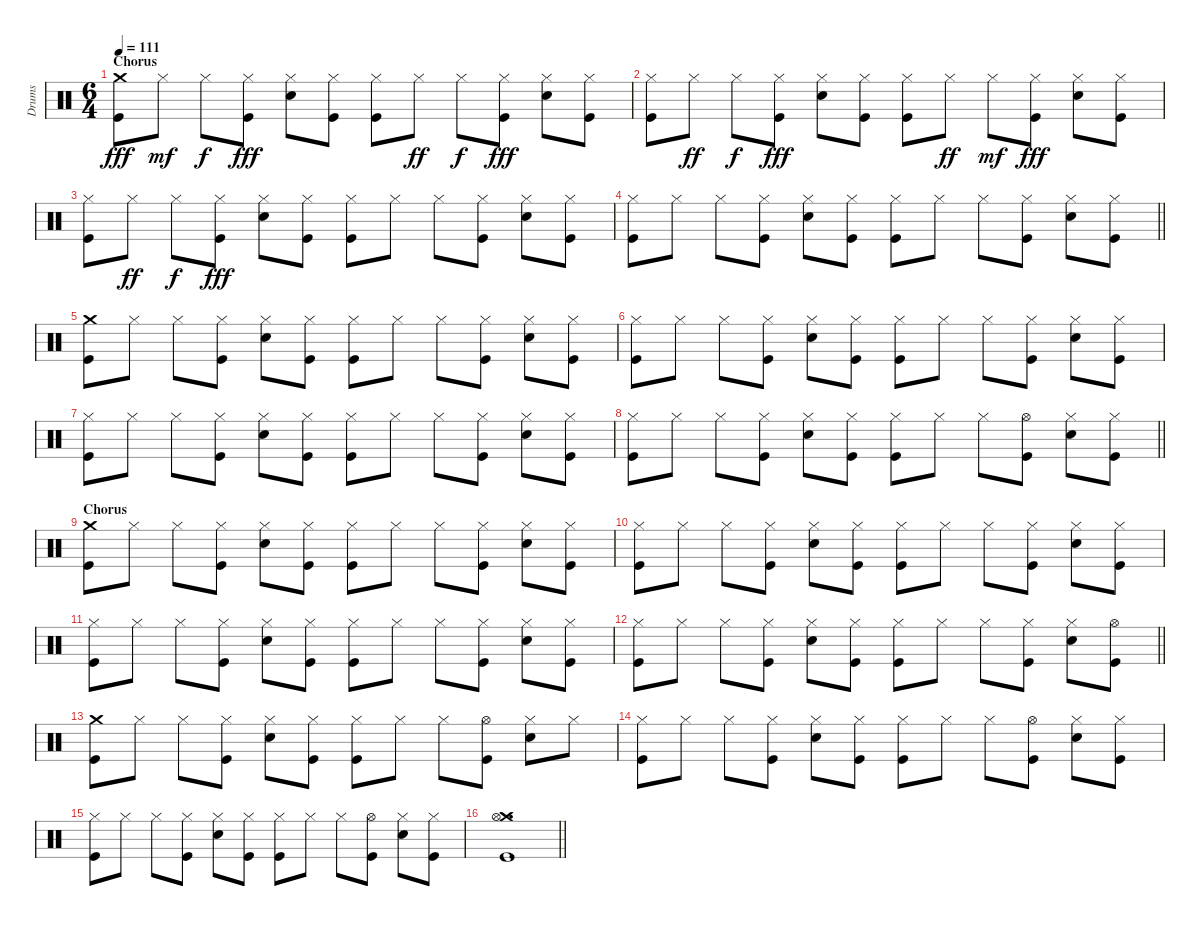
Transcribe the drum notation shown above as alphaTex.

\track ("Drums" "Drums") {instrument percussion}
\staff {score}
\articulation defaults
\ts (6 4)
\section ("" "Chorus")
\tempo 111
\clef neutral
\ks c
("Crash medium (hit)" "Kick (hit)").8{dy fff} "Hi-Hat (closed)".8{dy mf} "Hi-Hat (closed)".8{dy f} ("Hi-Hat (closed)" "Kick (hit)").8{dy fff} ("Hi-Hat (closed)" "Snare (hit) 2").8 ("Hi-Hat (closed)" "Kick (hit)").8 ("Hi-Hat (closed)" "Kick (hit)").8 "Hi-Hat (closed)".8{dy ff} "Hi-Hat (closed)".8{dy f} ("Hi-Hat (closed)" "Kick (hit)").8{dy fff} ("Hi-Hat (closed)" "Snare (hit) 2").8 ("Hi-Hat (closed)" "Kick (hit)").8 |
("Hi-Hat (closed)" "Kick (hit)").8 "Hi-Hat (closed)".8{dy ff} "Hi-Hat (closed)".8{dy f} ("Hi-Hat (closed)" "Kick (hit)").8{dy fff} ("Hi-Hat (closed)" "Snare (hit) 2").8 ("Hi-Hat (closed)" "Kick (hit)").8 ("Hi-Hat (closed)" "Kick (hit)").8 "Hi-Hat (closed)".8{dy ff} "Hi-Hat (closed)".8{dy mf} ("Hi-Hat (closed)" "Kick (hit)").8{dy fff} ("Hi-Hat (closed)" "Snare (hit) 2").8 ("Hi-Hat (closed)" "Kick (hit)").8 |
("Hi-Hat (closed)" "Kick (hit)").8 "Hi-Hat (closed)".8{dy ff} "Hi-Hat (closed)".8{dy f} ("Hi-Hat (closed)" "Kick (hit)").8{dy fff} ("Hi-Hat (closed)" "Snare (hit) 2").8 ("Hi-Hat (closed)" "Kick (hit)").8 ("Hi-Hat (closed)" "Kick (hit)").8 "Hi-Hat (closed)".8 "Hi-Hat (closed)".8 ("Hi-Hat (closed)" "Kick (hit)").8 ("Hi-Hat (closed)" "Snare (hit) 2").8 ("Hi-Hat (closed)" "Kick (hit)").8 |
\barLineRight lightlight
("Hi-Hat (closed)" "Kick (hit)").8 "Hi-Hat (closed)".8 "Hi-Hat (closed)".8 ("Hi-Hat (closed)" "Kick (hit)").8 ("Hi-Hat (closed)" "Snare (hit) 2").8 ("Hi-Hat (closed)" "Kick (hit)").8 ("Hi-Hat (closed)" "Kick (hit)").8 "Hi-Hat (closed)".8 "Hi-Hat (closed)".8 ("Hi-Hat (closed)" "Kick (hit)").8 ("Hi-Hat (closed)" "Snare (hit) 2").8 ("Hi-Hat (closed)" "Kick (hit)").8 |
("Crash medium (hit)" "Kick (hit)").8 "Hi-Hat (closed)".8 "Hi-Hat (closed)".8 ("Hi-Hat (closed)" "Kick (hit)").8 ("Hi-Hat (closed)" "Snare (hit) 2").8 ("Hi-Hat (closed)" "Kick (hit)").8 ("Hi-Hat (closed)" "Kick (hit)").8 "Hi-Hat (closed)".8 "Hi-Hat (closed)".8 ("Hi-Hat (closed)" "Kick (hit)").8 ("Hi-Hat (closed)" "Snare (hit) 2").8 ("Hi-Hat (closed)" "Kick (hit)").8 |
("Hi-Hat (closed)" "Kick (hit)").8 "Hi-Hat (closed)".8 "Hi-Hat (closed)".8 ("Hi-Hat (closed)" "Kick (hit)").8 ("Hi-Hat (closed)" "Snare (hit) 2").8 ("Hi-Hat (closed)" "Kick (hit)").8 ("Hi-Hat (closed)" "Kick (hit)").8 "Hi-Hat (closed)".8 "Hi-Hat (closed)".8 ("Hi-Hat (closed)" "Kick (hit)").8 ("Hi-Hat (closed)" "Snare (hit) 2").8 ("Hi-Hat (closed)" "Kick (hit)").8 |
("Hi-Hat (closed)" "Kick (hit)").8 "Hi-Hat (closed)".8 "Hi-Hat (closed)".8 ("Hi-Hat (closed)" "Kick (hit)").8 ("Hi-Hat (closed)" "Snare (hit) 2").8 ("Hi-Hat (closed)" "Kick (hit)").8 ("Hi-Hat (closed)" "Kick (hit)").8 "Hi-Hat (closed)".8 "Hi-Hat (closed)".8 ("Hi-Hat (closed)" "Kick (hit)").8 ("Hi-Hat (closed)" "Snare (hit) 2").8 ("Hi-Hat (closed)" "Kick (hit)").8 |
\barLineRight lightlight
("Hi-Hat (closed)" "Kick (hit)").8 "Hi-Hat (closed)".8 "Hi-Hat (closed)".8 ("Hi-Hat (closed)" "Kick (hit)").8 ("Hi-Hat (closed)" "Snare (hit) 2").8 ("Hi-Hat (closed)" "Kick (hit)").8 ("Hi-Hat (closed)" "Kick (hit)").8 "Hi-Hat (closed)".8 "Hi-Hat (closed)".8 ("Hi-Hat (open)" "Kick (hit)").8 ("Hi-Hat (closed)" "Snare (hit) 2").8 ("Hi-Hat (closed)" "Kick (hit)").8 |
\section ("" "Chorus")
("Crash medium (hit)" "Kick (hit)").8 "Hi-Hat (closed)".8 "Hi-Hat (closed)".8 ("Hi-Hat (closed)" "Kick (hit)").8 ("Hi-Hat (closed)" "Snare (hit) 2").8 ("Hi-Hat (closed)" "Kick (hit)").8 ("Hi-Hat (closed)" "Kick (hit)").8 "Hi-Hat (closed)".8 "Hi-Hat (closed)".8 ("Hi-Hat (closed)" "Kick (hit)").8 ("Hi-Hat (closed)" "Snare (hit) 2").8 ("Hi-Hat (closed)" "Kick (hit)").8 |
("Hi-Hat (closed)" "Kick (hit)").8 "Hi-Hat (closed)".8 "Hi-Hat (closed)".8 ("Hi-Hat (closed)" "Kick (hit)").8 ("Hi-Hat (closed)" "Snare (hit) 2").8 ("Hi-Hat (closed)" "Kick (hit)").8 ("Hi-Hat (closed)" "Kick (hit)").8 "Hi-Hat (closed)".8 "Hi-Hat (closed)".8 ("Hi-Hat (closed)" "Kick (hit)").8 ("Hi-Hat (closed)" "Snare (hit) 2").8 ("Hi-Hat (closed)" "Kick (hit)").8 |
("Hi-Hat (closed)" "Kick (hit)").8 "Hi-Hat (closed)".8 "Hi-Hat (closed)".8 ("Hi-Hat (closed)" "Kick (hit)").8 ("Hi-Hat (closed)" "Snare (hit) 2").8 ("Hi-Hat (closed)" "Kick (hit)").8 ("Hi-Hat (closed)" "Kick (hit)").8 "Hi-Hat (closed)".8 "Hi-Hat (closed)".8 ("Hi-Hat (closed)" "Kick (hit)").8 ("Hi-Hat (closed)" "Snare (hit) 2").8 ("Hi-Hat (closed)" "Kick (hit)").8 |
\barLineRight lightlight
("Hi-Hat (closed)" "Kick (hit)").8 "Hi-Hat (closed)".8 "Hi-Hat (closed)".8 ("Hi-Hat (closed)" "Kick (hit)").8 ("Hi-Hat (closed)" "Snare (hit) 2").8 ("Hi-Hat (closed)" "Kick (hit)").8 ("Hi-Hat (closed)" "Kick (hit)").8 "Hi-Hat (closed)".8 "Hi-Hat (closed)".8 ("Hi-Hat (closed)" "Kick (hit)").8 ("Hi-Hat (closed)" "Snare (hit) 2").8 ("Hi-Hat (open)" "Kick (hit)").8 |
("Crash medium (hit)" "Kick (hit)").8 "Hi-Hat (closed)".8 "Hi-Hat (closed)".8 ("Hi-Hat (closed)" "Kick (hit)").8 ("Hi-Hat (closed)" "Snare (hit) 2").8 ("Hi-Hat (closed)" "Kick (hit)").8 ("Hi-Hat (closed)" "Kick (hit)").8 "Hi-Hat (closed)".8 "Hi-Hat (closed)".8 ("Hi-Hat (open)" "Kick (hit)").8 ("Hi-Hat (closed)" "Snare (hit) 2").8 "Hi-Hat (closed)".8 |
("Hi-Hat (closed)" "Kick (hit)").8 "Hi-Hat (closed)".8 "Hi-Hat (closed)".8 ("Hi-Hat (closed)" "Kick (hit)").8 ("Hi-Hat (closed)" "Snare (hit) 2").8 ("Hi-Hat (closed)" "Kick (hit)").8 ("Hi-Hat (closed)" "Kick (hit)").8 "Hi-Hat (closed)".8 "Hi-Hat (closed)".8 ("Hi-Hat (open)" "Kick (hit)").8 ("Hi-Hat (closed)" "Snare (hit) 2").8 ("Hi-Hat (closed)" "Kick (hit)").8 |
("Hi-Hat (closed)" "Kick (hit)").8 "Hi-Hat (closed)".8 "Hi-Hat (closed)".8 ("Hi-Hat (closed)" "Kick (hit)").8 ("Hi-Hat (closed)" "Snare (hit) 2").8 ("Hi-Hat (closed)" "Kick (hit)").8 ("Hi-Hat (closed)" "Kick (hit)").8 "Hi-Hat (closed)".8 "Hi-Hat (closed)".8 ("Hi-Hat (open)" "Kick (hit)").8 ("Hi-Hat (closed)" "Snare (hit) 2").8 ("Hi-Hat (closed)" "Kick (hit)").8 |
\barLineRight lightlight
("Crash medium (hit)" "Hi-Hat (open)" "Kick (hit)").1{d}
